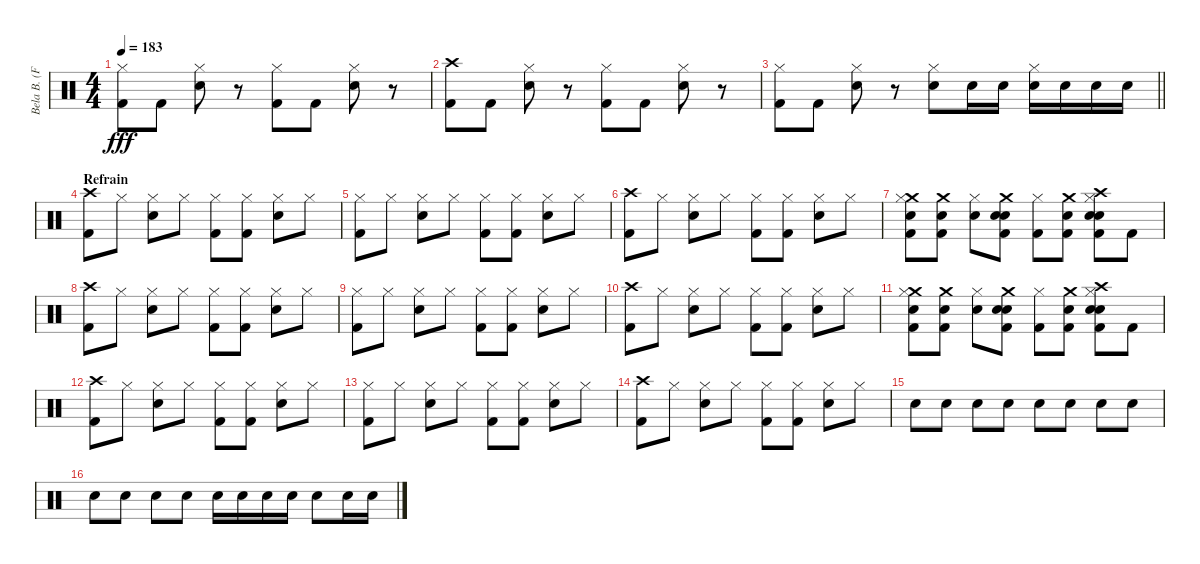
\track ("Bela B. (Felsenheimer)" "Bela B. (F") {instrument percussion}
\staff {score}
\articulation defaults
\ts (4 4)
\tempo 183
\clef neutral
\ks c
("Hi-Hat (closed)" "Kick (hit) 2").8{dy fff} "Kick (hit) 2".8 ("Hi-Hat (closed)" "Snare (hit) 2").8 r.8 ("Hi-Hat (closed)" "Kick (hit) 2").8 "Kick (hit) 2".8 ("Hi-Hat (closed)" "Snare (hit) 2").8 r.8 |
("Crash high (hit)" "Kick (hit) 2").8 "Kick (hit) 2".8 ("Hi-Hat (closed)" "Snare (hit) 2").8 r.8 ("Hi-Hat (closed)" "Kick (hit) 2").8 "Kick (hit) 2".8 ("Hi-Hat (closed)" "Snare (hit) 2").8 r.8 |
\barLineRight lightlight
("Hi-Hat (closed)" "Kick (hit) 2").8 "Kick (hit) 2".8 ("Hi-Hat (closed)" "Snare (hit) 2").8 r.8 ("Hi-Hat (closed)" "Snare (hit) 2").8 "Snare (hit) 2".16 "Snare (hit) 2".16 ("Hi-Hat (closed)" "Snare (hit) 2").16 "Snare (hit) 2".16 "Snare (hit) 2".16 "Snare (hit) 2".16 |
\section ("" "Refrain")
("Kick (hit) 2" "Crash high (hit)").8 "Hi-Hat (closed)".8 ("Snare (hit) 2" "Hi-Hat (closed)").8 "Hi-Hat (closed)".8 ("Kick (hit) 2" "Hi-Hat (closed)").8 ("Kick (hit) 2" "Hi-Hat (closed)").8 ("Snare (hit) 2" "Hi-Hat (closed)").8 "Hi-Hat (closed)".8 |
("Kick (hit) 2" "Hi-Hat (closed)").8 "Hi-Hat (closed)".8 ("Snare (hit) 2" "Hi-Hat (closed)").8 "Hi-Hat (closed)".8 ("Kick (hit) 2" "Hi-Hat (closed)").8 ("Kick (hit) 2" "Hi-Hat (closed)").8 ("Snare (hit) 2" "Hi-Hat (closed)").8 "Hi-Hat (closed)".8 |
("Kick (hit) 2" "Crash high (hit)").8 "Hi-Hat (closed)".8 ("Snare (hit) 2" "Hi-Hat (closed)").8 "Hi-Hat (closed)".8 ("Kick (hit) 2" "Hi-Hat (closed)").8 ("Kick (hit) 2" "Hi-Hat (closed)").8 ("Snare (hit) 2" "Hi-Hat (closed)").8 "Hi-Hat (closed)".8 |
("Crash medium (hit)" "Electric Snare (hit)" "Kick (hit) 2" "Hi-Hat (closed)").8 ("Crash medium (hit)" "Snare (hit) 2" "Kick (hit) 2").8 ("Snare (hit) 2" "Hi-Hat (closed)").8 ("Snare (hit) 2" "Electric Snare (hit)" "Kick (hit) 2" "Crash medium (hit)").8 ("Kick (hit) 2" "Hi-Hat (closed)").8 ("Crash medium (hit)" "Electric Snare (hit)" "Kick (hit) 2").8 ("Electric Snare (hit)" "Snare (hit) 2" "Kick (hit) 2" "Crash high (hit)" "Hi-Hat (closed)").8 "Kick (hit) 2".8 |
("Kick (hit) 2" "Crash high (hit)").8 "Hi-Hat (closed)".8 ("Snare (hit) 2" "Hi-Hat (closed)").8 "Hi-Hat (closed)".8 ("Kick (hit) 2" "Hi-Hat (closed)").8 ("Kick (hit) 2" "Hi-Hat (closed)").8 ("Snare (hit) 2" "Hi-Hat (closed)").8 "Hi-Hat (closed)".8 |
("Kick (hit) 2" "Hi-Hat (closed)").8 "Hi-Hat (closed)".8 ("Snare (hit) 2" "Hi-Hat (closed)").8 "Hi-Hat (closed)".8 ("Kick (hit) 2" "Hi-Hat (closed)").8 ("Kick (hit) 2" "Hi-Hat (closed)").8 ("Snare (hit) 2" "Hi-Hat (closed)").8 "Hi-Hat (closed)".8 |
("Kick (hit) 2" "Crash high (hit)").8 "Hi-Hat (closed)".8 ("Snare (hit) 2" "Hi-Hat (closed)").8 "Hi-Hat (closed)".8 ("Kick (hit) 2" "Hi-Hat (closed)").8 ("Kick (hit) 2" "Hi-Hat (closed)").8 ("Snare (hit) 2" "Hi-Hat (closed)").8 "Hi-Hat (closed)".8 |
("Crash medium (hit)" "Electric Snare (hit)" "Kick (hit) 2" "Hi-Hat (closed)").8 ("Crash medium (hit)" "Snare (hit) 2" "Kick (hit) 2").8 ("Snare (hit) 2" "Hi-Hat (closed)").8 ("Snare (hit) 2" "Electric Snare (hit)" "Kick (hit) 2" "Crash medium (hit)").8 ("Kick (hit) 2" "Hi-Hat (closed)").8 ("Crash medium (hit)" "Electric Snare (hit)" "Kick (hit) 2").8 ("Electric Snare (hit)" "Snare (hit) 2" "Kick (hit) 2" "Crash high (hit)" "Hi-Hat (closed)").8 "Kick (hit) 2".8 |
("Kick (hit) 2" "Crash high (hit)").8 "Hi-Hat (closed)".8 ("Snare (hit) 2" "Hi-Hat (closed)").8 "Hi-Hat (closed)".8 ("Kick (hit) 2" "Hi-Hat (closed)").8 ("Kick (hit) 2" "Hi-Hat (closed)").8 ("Snare (hit) 2" "Hi-Hat (closed)").8 "Hi-Hat (closed)".8 |
("Kick (hit) 2" "Hi-Hat (closed)").8 "Hi-Hat (closed)".8 ("Snare (hit) 2" "Hi-Hat (closed)").8 "Hi-Hat (closed)".8 ("Kick (hit) 2" "Hi-Hat (closed)").8 ("Kick (hit) 2" "Hi-Hat (closed)").8 ("Snare (hit) 2" "Hi-Hat (closed)").8 "Hi-Hat (closed)".8 |
("Kick (hit) 2" "Crash high (hit)").8 "Hi-Hat (closed)".8 ("Snare (hit) 2" "Hi-Hat (closed)").8 "Hi-Hat (closed)".8 ("Kick (hit) 2" "Hi-Hat (closed)").8 ("Kick (hit) 2" "Hi-Hat (closed)").8 ("Snare (hit) 2" "Hi-Hat (closed)").8 "Hi-Hat (closed)".8 |
"Snare (hit) 2".8 "Snare (hit) 2".8 "Snare (hit) 2".8 "Snare (hit) 2".8 "Snare (hit) 2".8 "Snare (hit) 2".8 "Snare (hit) 2".8 "Snare (hit) 2".8 |
"Snare (hit) 2".8 "Snare (hit) 2".8 "Snare (hit) 2".8 "Snare (hit) 2".8 "Snare (hit) 2".16 "Snare (hit) 2".16 "Snare (hit) 2".16 "Snare (hit) 2".16 "Snare (hit) 2".8 "Snare (hit) 2".16 "Snare (hit) 2".16
